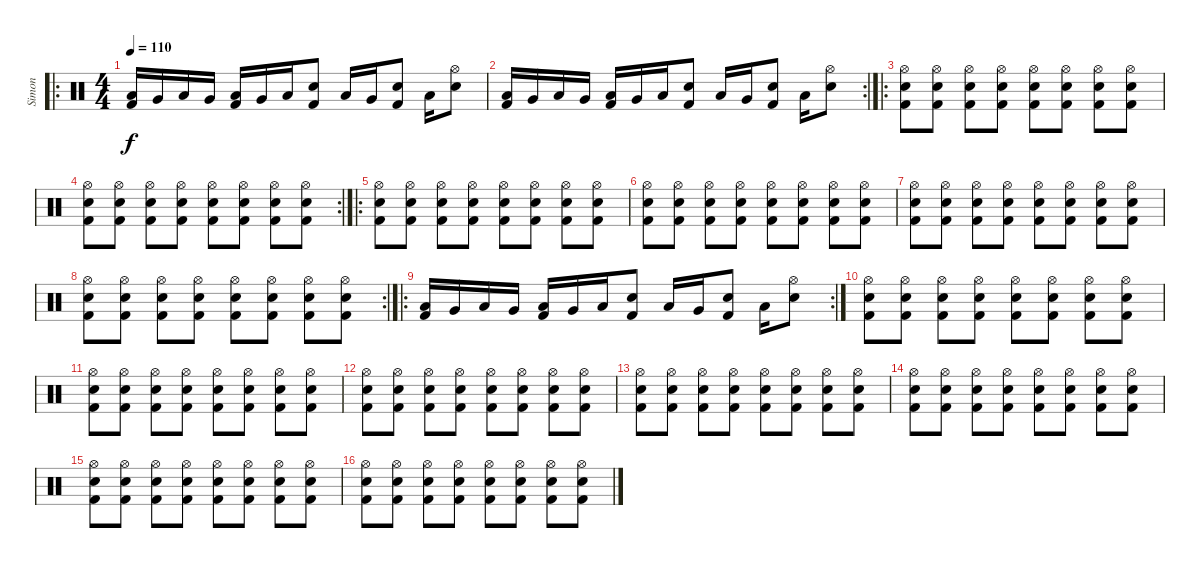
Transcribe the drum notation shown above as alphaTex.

\track ("Simon" "Simon") {instrument percussion}
\staff {score}
\articulation defaults
\ro
\ts (4 4)
\tempo 110
\clef neutral
\ks c
("Low Tom (hit)" "Kick (hit) 2").16{dy f} "Very Low Tom (hit)".16 "Low Tom (hit)".16 "Very Low Tom (hit)".16 ("Low Tom (hit)" "Kick (hit) 2").16 "Very Low Tom (hit)".16 "Low Tom (hit)".16 ("Snare (hit) 2" "Kick (hit) 2").8 "Low Tom (hit)".16 "Very Low Tom (hit)".16 ("Snare (hit) 2" "Kick (hit) 2").8 "Low Tom (hit)".16 ("Hi-Hat (open)" "Snare (hit) 2").8 |
\rc 2
("Low Tom (hit)" "Kick (hit) 2").16 "Very Low Tom (hit)".16 "Low Tom (hit)".16 "Very Low Tom (hit)".16 ("Low Tom (hit)" "Kick (hit) 2").16 "Very Low Tom (hit)".16 "Low Tom (hit)".16 ("Snare (hit) 2" "Kick (hit) 2").8 "Low Tom (hit)".16 "Very Low Tom (hit)".16 ("Snare (hit) 2" "Kick (hit) 2").8 "Low Tom (hit)".16 ("Hi-Hat (open)" "Snare (hit) 2").8 |
\ro
("Hi-Hat (open)" "Snare (hit) 2" "Kick (hit) 2").8 ("Hi-Hat (open)" "Snare (hit) 2" "Kick (hit) 2").8 ("Hi-Hat (open)" "Snare (hit) 2" "Kick (hit) 2").8 ("Hi-Hat (open)" "Snare (hit) 2" "Kick (hit) 2").8 ("Hi-Hat (open)" "Snare (hit) 2" "Kick (hit) 2").8 ("Hi-Hat (open)" "Snare (hit) 2" "Kick (hit) 2").8 ("Hi-Hat (open)" "Snare (hit) 2" "Kick (hit) 2").8 ("Hi-Hat (open)" "Snare (hit) 2" "Kick (hit) 2").8 |
\rc 2
("Hi-Hat (open)" "Snare (hit) 2" "Kick (hit) 2").8 ("Hi-Hat (open)" "Snare (hit) 2" "Kick (hit) 2").8 ("Hi-Hat (open)" "Snare (hit) 2" "Kick (hit) 2").8 ("Hi-Hat (open)" "Snare (hit) 2" "Kick (hit) 2").8 ("Hi-Hat (open)" "Snare (hit) 2" "Kick (hit) 2").8 ("Hi-Hat (open)" "Snare (hit) 2" "Kick (hit) 2").8 ("Hi-Hat (open)" "Snare (hit) 2" "Kick (hit) 2").8 ("Hi-Hat (open)" "Snare (hit) 2" "Kick (hit) 2").8 |
\ro
("Hi-Hat (open)" "Snare (hit) 2" "Kick (hit) 2").8 ("Hi-Hat (open)" "Snare (hit) 2" "Kick (hit) 2").8 ("Hi-Hat (open)" "Snare (hit) 2" "Kick (hit) 2").8 ("Hi-Hat (open)" "Snare (hit) 2" "Kick (hit) 2").8 ("Hi-Hat (open)" "Snare (hit) 2" "Kick (hit) 2").8 ("Hi-Hat (open)" "Snare (hit) 2" "Kick (hit) 2").8 ("Hi-Hat (open)" "Snare (hit) 2" "Kick (hit) 2").8 ("Hi-Hat (open)" "Snare (hit) 2" "Kick (hit) 2").8 |
("Hi-Hat (open)" "Snare (hit) 2" "Kick (hit) 2").8 ("Hi-Hat (open)" "Snare (hit) 2" "Kick (hit) 2").8 ("Hi-Hat (open)" "Snare (hit) 2" "Kick (hit) 2").8 ("Hi-Hat (open)" "Snare (hit) 2" "Kick (hit) 2").8 ("Hi-Hat (open)" "Snare (hit) 2" "Kick (hit) 2").8 ("Hi-Hat (open)" "Snare (hit) 2" "Kick (hit) 2").8 ("Hi-Hat (open)" "Snare (hit) 2" "Kick (hit) 2").8 ("Hi-Hat (open)" "Snare (hit) 2" "Kick (hit) 2").8 |
("Hi-Hat (open)" "Snare (hit) 2" "Kick (hit) 2").8 ("Hi-Hat (open)" "Snare (hit) 2" "Kick (hit) 2").8 ("Hi-Hat (open)" "Snare (hit) 2" "Kick (hit) 2").8 ("Hi-Hat (open)" "Snare (hit) 2" "Kick (hit) 2").8 ("Hi-Hat (open)" "Snare (hit) 2" "Kick (hit) 2").8 ("Hi-Hat (open)" "Snare (hit) 2" "Kick (hit) 2").8 ("Hi-Hat (open)" "Snare (hit) 2" "Kick (hit) 2").8 ("Hi-Hat (open)" "Snare (hit) 2" "Kick (hit) 2").8 |
\rc 2
("Hi-Hat (open)" "Snare (hit) 2" "Kick (hit) 2").8 ("Hi-Hat (open)" "Snare (hit) 2" "Kick (hit) 2").8 ("Hi-Hat (open)" "Snare (hit) 2" "Kick (hit) 2").8 ("Hi-Hat (open)" "Snare (hit) 2" "Kick (hit) 2").8 ("Hi-Hat (open)" "Snare (hit) 2" "Kick (hit) 2").8 ("Hi-Hat (open)" "Snare (hit) 2" "Kick (hit) 2").8 ("Hi-Hat (open)" "Snare (hit) 2" "Kick (hit) 2").8 ("Hi-Hat (open)" "Snare (hit) 2" "Kick (hit) 2").8 |
\ro
\rc 2
("Low Tom (hit)" "Kick (hit) 2").16 "Very Low Tom (hit)".16 "Low Tom (hit)".16 "Very Low Tom (hit)".16 ("Low Tom (hit)" "Kick (hit) 2").16 "Very Low Tom (hit)".16 "Low Tom (hit)".16 ("Snare (hit) 2" "Kick (hit) 2").8 "Low Tom (hit)".16 "Very Low Tom (hit)".16 ("Snare (hit) 2" "Kick (hit) 2").8 "Low Tom (hit)".16 ("Hi-Hat (open)" "Snare (hit) 2").8 |
("Hi-Hat (open)" "Snare (hit) 2" "Kick (hit) 2").8 ("Hi-Hat (open)" "Snare (hit) 2" "Kick (hit) 2").8 ("Hi-Hat (open)" "Snare (hit) 2" "Kick (hit) 2").8 ("Hi-Hat (open)" "Snare (hit) 2" "Kick (hit) 2").8 ("Hi-Hat (open)" "Snare (hit) 2" "Kick (hit) 2").8 ("Hi-Hat (open)" "Snare (hit) 2" "Kick (hit) 2").8 ("Hi-Hat (open)" "Snare (hit) 2" "Kick (hit) 2").8 ("Hi-Hat (open)" "Snare (hit) 2" "Kick (hit) 2").8 |
("Hi-Hat (open)" "Snare (hit) 2" "Kick (hit) 2").8 ("Hi-Hat (open)" "Snare (hit) 2" "Kick (hit) 2").8 ("Hi-Hat (open)" "Snare (hit) 2" "Kick (hit) 2").8 ("Hi-Hat (open)" "Snare (hit) 2" "Kick (hit) 2").8 ("Hi-Hat (open)" "Snare (hit) 2" "Kick (hit) 2").8 ("Hi-Hat (open)" "Snare (hit) 2" "Kick (hit) 2").8 ("Hi-Hat (open)" "Snare (hit) 2" "Kick (hit) 2").8 ("Hi-Hat (open)" "Snare (hit) 2" "Kick (hit) 2").8 |
("Hi-Hat (open)" "Snare (hit) 2" "Kick (hit) 2").8 ("Hi-Hat (open)" "Snare (hit) 2" "Kick (hit) 2").8 ("Hi-Hat (open)" "Snare (hit) 2" "Kick (hit) 2").8 ("Hi-Hat (open)" "Snare (hit) 2" "Kick (hit) 2").8 ("Hi-Hat (open)" "Snare (hit) 2" "Kick (hit) 2").8 ("Hi-Hat (open)" "Snare (hit) 2" "Kick (hit) 2").8 ("Hi-Hat (open)" "Snare (hit) 2" "Kick (hit) 2").8 ("Hi-Hat (open)" "Snare (hit) 2" "Kick (hit) 2").8 |
("Hi-Hat (open)" "Snare (hit) 2" "Kick (hit) 2").8 ("Hi-Hat (open)" "Snare (hit) 2" "Kick (hit) 2").8 ("Hi-Hat (open)" "Snare (hit) 2" "Kick (hit) 2").8 ("Hi-Hat (open)" "Snare (hit) 2" "Kick (hit) 2").8 ("Hi-Hat (open)" "Snare (hit) 2" "Kick (hit) 2").8 ("Hi-Hat (open)" "Snare (hit) 2" "Kick (hit) 2").8 ("Hi-Hat (open)" "Snare (hit) 2" "Kick (hit) 2").8 ("Hi-Hat (open)" "Snare (hit) 2" "Kick (hit) 2").8 |
("Hi-Hat (open)" "Snare (hit) 2" "Kick (hit) 2").8 ("Hi-Hat (open)" "Snare (hit) 2" "Kick (hit) 2").8 ("Hi-Hat (open)" "Snare (hit) 2" "Kick (hit) 2").8 ("Hi-Hat (open)" "Snare (hit) 2" "Kick (hit) 2").8 ("Hi-Hat (open)" "Snare (hit) 2" "Kick (hit) 2").8 ("Hi-Hat (open)" "Snare (hit) 2" "Kick (hit) 2").8 ("Hi-Hat (open)" "Snare (hit) 2" "Kick (hit) 2").8 ("Hi-Hat (open)" "Snare (hit) 2" "Kick (hit) 2").8 |
("Hi-Hat (open)" "Snare (hit) 2" "Kick (hit) 2").8 ("Hi-Hat (open)" "Snare (hit) 2" "Kick (hit) 2").8 ("Hi-Hat (open)" "Snare (hit) 2" "Kick (hit) 2").8 ("Hi-Hat (open)" "Snare (hit) 2" "Kick (hit) 2").8 ("Hi-Hat (open)" "Snare (hit) 2" "Kick (hit) 2").8 ("Hi-Hat (open)" "Snare (hit) 2" "Kick (hit) 2").8 ("Hi-Hat (open)" "Snare (hit) 2" "Kick (hit) 2").8 ("Hi-Hat (open)" "Snare (hit) 2" "Kick (hit) 2").8 |
("Hi-Hat (open)" "Snare (hit) 2" "Kick (hit) 2").8 ("Hi-Hat (open)" "Snare (hit) 2" "Kick (hit) 2").8 ("Hi-Hat (open)" "Snare (hit) 2" "Kick (hit) 2").8 ("Hi-Hat (open)" "Snare (hit) 2" "Kick (hit) 2").8 ("Hi-Hat (open)" "Snare (hit) 2" "Kick (hit) 2").8 ("Hi-Hat (open)" "Snare (hit) 2" "Kick (hit) 2").8 ("Hi-Hat (open)" "Snare (hit) 2" "Kick (hit) 2").8 ("Hi-Hat (open)" "Snare (hit) 2" "Kick (hit) 2").8
